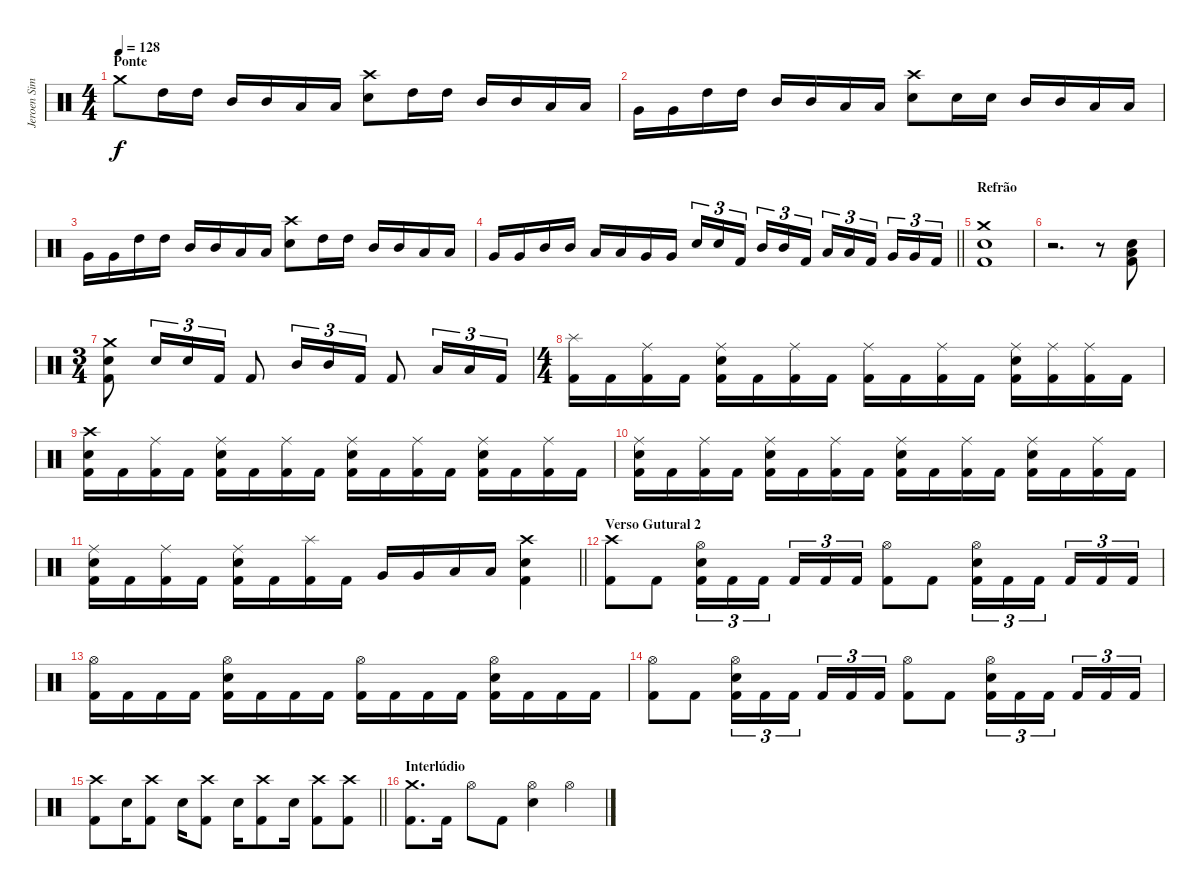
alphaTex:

\track ("Jeroen Simons" "Jeroen Sim") {instrument percussion}
\staff {score}
\articulation defaults
\ts (4 4)
\section ("" "Ponte")
\tempo 128
\clef neutral
\ks c "Crash medium (hit)".8{dy f} "High Tom (hit)".16 "High Tom (hit)".16 "Mid Tom (hit)".16 "Mid Tom (hit)".16 "Low Tom (hit)".16 "Low Tom (hit)".16
("Crash high (hit)" "Electric Snare (hit)").8 "High Tom (hit)".16 "High Tom (hit)".16 "Mid Tom (hit)".16 "Mid Tom (hit)".16 "Low Tom (hit)".16 "Low Tom (hit)".16 |
"Very Low Tom (hit)".16 "Very Low Tom (hit)".16 "High Tom (hit)".16 "High Tom (hit)".16 "Mid Tom (hit)".16 "Mid Tom (hit)".16 "Low Tom (hit)".16 "Low Tom (hit)".16 ("Crash high (hit)" "Electric Snare (hit)").8 "Electric Snare (hit)".16 "Electric Snare (hit)".16 "Mid Tom (hit)".16 "Mid Tom (hit)".16 "Low Tom (hit)".16 "Low Tom (hit)".16 |
"Very Low Tom (hit)".16 "Very Low Tom (hit)".16 "High Tom (hit)".16 "High Tom (hit)".16 "Mid Tom (hit)".16 "Mid Tom (hit)".16 "Low Tom (hit)".16 "Low Tom (hit)".16 ("Crash high (hit)" "Electric Snare (hit)").8 "High Tom (hit)".16 "High Tom (hit)".16 "Mid Tom (hit)".16 "Mid Tom (hit)".16 "Low Tom (hit)".16 "Low Tom (hit)".16 |
\barLineRight lightlight "Very Low Tom (hit)".16 "Very Low Tom (hit)".16 "Mid Tom (hit)".16 "Mid Tom (hit)".16 "Low Tom (hit)".16 "Low Tom (hit)".16 "Very Low Tom (hit)".16 "Very Low Tom (hit)".16 "Electric Snare (hit)".16{tu (3 2)} "Electric Snare (hit)".16{tu (3 2)} "Kick (hit) 2".16{tu (3 2) beam splitsecondary} "Mid Tom (hit)".16{tu (3 2)} "Mid Tom (hit)".16{tu (3 2)} "Kick (hit) 2".16{tu (3 2)} "Low Tom (hit)".16{tu (3 2)} "Low Tom (hit)".16{tu (3 2)} "Kick (hit) 2".16{tu (3 2) beam splitsecondary} "Very Low Tom (hit)".16{tu (3 2)} "Very Low Tom (hit)".16{tu (3 2)} "Kick (hit) 2".16{tu (3 2)}
|
\section ("" "Refrão")
("Crash medium (hit)" "Electric Snare (hit)" "Kick (hit) 2").1 |
r.2{d} r.8 ("Low Floor Tom (hit)" "Electric Snare (hit)" "Kick (hit) 2").8 |
\ts (3 4)
("Crash medium (hit)" "Electric Snare (hit)" "Kick (hit) 2").8 "Electric Snare (hit)".16{tu (3 2)} "Electric Snare (hit)".16{tu (3 2)} "Kick (hit) 2".16{tu (3 2)} "Kick (hit) 2".8 "Mid Tom (hit)".16{tu (3 2)} "Mid Tom (hit)".16{tu (3 2)} "Kick (hit) 2".16{tu (3 2)} "Kick (hit) 2".8 "Low Tom (hit)".16{tu (3 2)} "Low Tom (hit)".16{tu (3 2)} "Kick (hit) 2".16{tu (3 2)} |
\ts (4 4)
("Splash (hit)" "Kick (hit) 2").16 "Kick (hit) 2".16 ("Ride (middle)" "Kick (hit) 2").16 "Kick (hit) 2".16 ("Ride (middle)" "Electric Snare (hit)" "Kick (hit) 2").16 "Kick (hit) 2".16 ("Ride (middle)" "Kick (hit) 2").16 "Kick (hit) 2".16 ("Ride (middle)" "Kick (hit) 2").16 "Kick (hit) 2".16 ("Ride (middle)" "Kick (hit) 2").16 "Kick (hit) 2".16 ("Ride (middle)" "Electric Snare (hit)" "Kick (hit) 2").16 ("Ride (middle)" "Kick (hit) 2").16 ("Ride (middle)" "Kick (hit) 2").16 "Kick (hit) 2".16 |
("Crash high (hit)" "Electric Snare (hit)" "Kick (hit) 2").16 "Kick (hit) 2".16 ("Ride (middle)" "Kick (hit) 2").16 "Kick (hit) 2".16 ("Ride (middle)" "Electric Snare (hit)" "Kick (hit) 2").16 "Kick (hit) 2".16 ("Ride (middle)" "Kick (hit) 2").16 "Kick (hit) 2".16 ("Ride (middle)" "Electric Snare (hit)" "Kick (hit) 2").16 "Kick (hit) 2".16 ("Ride (middle)" "Kick (hit) 2").16 "Kick (hit) 2".16 ("Ride (middle)" "Electric Snare (hit)" "Kick (hit) 2").16 "Kick (hit) 2".16 ("Ride (middle)" "Kick (hit) 2").16 "Kick (hit) 2".16 |
("Ride (middle)" "Electric Snare (hit)" "Kick (hit) 2").16 "Kick (hit) 2".16 ("Ride (middle)" "Kick (hit) 2").16 "Kick (hit) 2".16 ("Ride (middle)" "Electric Snare (hit)" "Kick (hit) 2").16 "Kick (hit) 2".16 ("Ride (middle)" "Kick (hit) 2").16 "Kick (hit) 2".16 ("Ride (middle)" "Electric Snare (hit)" "Kick (hit) 2").16 "Kick (hit) 2".16 ("Ride (middle)" "Kick (hit) 2").16 "Kick (hit) 2".16 ("Ride (middle)" "Electric Snare (hit)" "Kick (hit) 2").16 "Kick (hit) 2".16 ("Ride (middle)" "Kick (hit) 2").16 "Kick (hit) 2".16 |
\barLineRight lightlight
("Ride (middle)" "Electric Snare (hit)" "Kick (hit) 2").16 "Kick (hit) 2".16 ("Ride (middle)" "Kick (hit) 2").16 "Kick (hit) 2".16 ("Ride (middle)" "Electric Snare (hit)" "Kick (hit) 2").16 "Kick (hit) 2".16 ("Splash (hit)" "Kick (hit) 2").16 "Kick (hit) 2".16 "Very Low Tom (hit)".16 "Very Low Tom (hit)".16 "Low Floor Tom (hit)".16 "Low Floor Tom (hit)".16 ("Crash high (hit)" "Electric Snare (hit)" "Kick (hit) 2").4 |
\section ("" "Verso Gutural 2")
("Crash high (hit)" "Kick (hit) 2").8 "Kick (hit) 2".8 ("Hi-Hat (open)" "Electric Snare (hit)" "Kick (hit) 2").16{tu (3 2)} "Kick (hit) 2".16{tu (3 2)} "Kick (hit) 2".16{tu (3 2) beam splitsecondary} "Kick (hit) 2".16{tu (3 2)} "Kick (hit) 2".16{tu (3 2)} "Kick (hit) 2".16{tu (3 2)} ("Hi-Hat (open)" "Kick (hit) 2").8 "Kick (hit) 2".8 ("Hi-Hat (open)" "Electric Snare (hit)" "Kick (hit) 2").16{tu (3 2)} "Kick (hit) 2".16{tu (3 2)} "Kick (hit) 2".16{tu (3 2) beam splitsecondary} "Kick (hit) 2".16{tu (3 2)} "Kick (hit) 2".16{tu (3 2)} "Kick (hit) 2".16{tu (3 2)} |
("Hi-Hat (open)" "Kick (hit) 2").16 "Kick (hit) 2".16 "Kick (hit) 2".16 "Kick (hit) 2".16 ("Hi-Hat (open)" "Electric Snare (hit)" "Kick (hit) 2").16 "Kick (hit) 2".16 "Kick (hit) 2".16 "Kick (hit) 2".16 ("Hi-Hat (open)" "Kick (hit) 2").16 "Kick (hit) 2".16 "Kick (hit) 2".16 "Kick (hit) 2".16 ("Hi-Hat (open)" "Electric Snare (hit)" "Kick (hit) 2").16 "Kick (hit) 2".16 "Kick (hit) 2".16 "Kick (hit) 2".16 |
("Hi-Hat (open)" "Kick (hit) 2").8 "Kick (hit) 2".8 ("Hi-Hat (open)" "Electric Snare (hit)" "Kick (hit) 2").16{tu (3 2)} "Kick (hit) 2".16{tu (3 2)} "Kick (hit) 2".16{tu (3 2) beam splitsecondary} "Kick (hit) 2".16{tu (3 2)} "Kick (hit) 2".16{tu (3 2)} "Kick (hit) 2".16{tu (3 2)} ("Hi-Hat (open)" "Kick (hit) 2").8 "Kick (hit) 2".8 ("Hi-Hat (open)" "Electric Snare (hit)" "Kick (hit) 2").16{tu (3 2)} "Kick (hit) 2".16{tu (3 2)} "Kick (hit) 2".16{tu (3 2) beam splitsecondary} "Kick (hit) 2".16{tu (3 2)} "Kick (hit) 2".16{tu (3 2)} "Kick (hit) 2".16{tu (3 2)} |
\barLineRight lightlight
("Crash high (hit)" "Kick (hit) 2").8 "Electric Snare (hit)".16 ("Crash high (hit)" "Kick (hit) 2").8 "Electric Snare (hit)".16 ("Crash high (hit)" "Kick (hit) 2").8 "Electric Snare (hit)".16 ("Crash high (hit)" "Kick (hit) 2").8 "Electric Snare (hit)".16 ("Crash high (hit)" "Kick (hit) 2").8 ("Crash high (hit)" "Kick (hit) 2").8 |
\section ("" "Interlúdio")
("Crash medium (hit)" "Kick (hit) 2").8{d} "Kick (hit) 2".16 "Hi-Hat (open)".8 "Kick (hit) 2".8 ("Hi-Hat (open)" "Electric Snare (hit)").4 "Hi-Hat (open)".4
